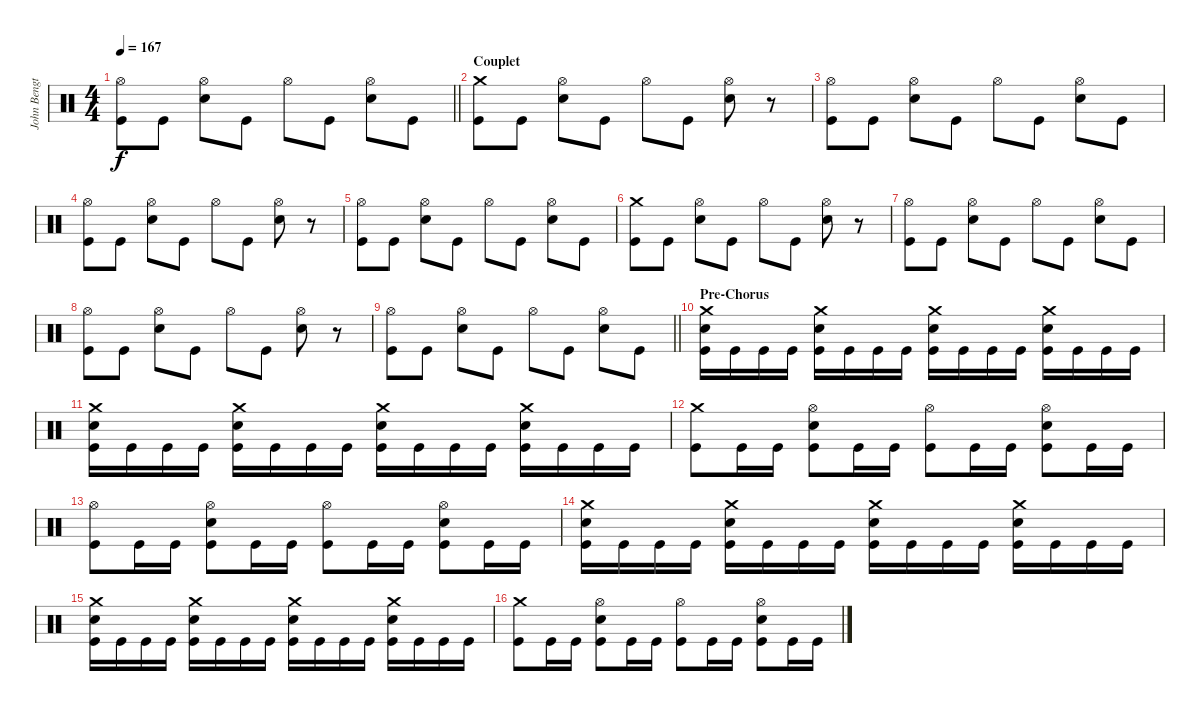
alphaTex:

\track ("John Bengtsson" "John Bengt") {instrument percussion}
\staff {score}
\articulation defaults
\ts (4 4)
\tempo 167
\clef neutral
\barLineRight lightlight
\ks c
("Hi-Hat (open)" "Kick (hit)").8{dy f} "Kick (hit)".8 ("Hi-Hat (open)" "Snare (hit) 2").8 "Kick (hit)".8 "Hi-Hat (open)".8 "Kick (hit)".8 ("Hi-Hat (open)" "Snare (hit) 2").8 "Kick (hit)".8 |
\section ("" "Сouplet")
("Crash medium (hit)" "Kick (hit)").8 "Kick (hit)".8 ("Hi-Hat (open)" "Snare (hit) 2").8 "Kick (hit)".8 "Hi-Hat (open)".8 "Kick (hit)".8 ("Hi-Hat (open)" "Snare (hit) 2").8 r.8 |
("Hi-Hat (open)" "Kick (hit)").8 "Kick (hit)".8 ("Hi-Hat (open)" "Snare (hit) 2").8 "Kick (hit)".8 "Hi-Hat (open)".8 "Kick (hit)".8 ("Hi-Hat (open)" "Snare (hit) 2").8 "Kick (hit)".8 |
("Hi-Hat (open)" "Kick (hit)").8 "Kick (hit)".8 ("Hi-Hat (open)" "Snare (hit) 2").8 "Kick (hit)".8 "Hi-Hat (open)".8 "Kick (hit)".8 ("Hi-Hat (open)" "Snare (hit) 2").8 r.8 |
("Hi-Hat (open)" "Kick (hit)").8 "Kick (hit)".8 ("Hi-Hat (open)" "Snare (hit) 2").8 "Kick (hit)".8 "Hi-Hat (open)".8 "Kick (hit)".8 ("Hi-Hat (open)" "Snare (hit) 2").8 "Kick (hit)".8 |
("Crash medium (hit)" "Kick (hit)").8 "Kick (hit)".8 ("Hi-Hat (open)" "Snare (hit) 2").8 "Kick (hit)".8 "Hi-Hat (open)".8 "Kick (hit)".8 ("Hi-Hat (open)" "Snare (hit) 2").8 r.8 |
("Hi-Hat (open)" "Kick (hit)").8 "Kick (hit)".8 ("Hi-Hat (open)" "Snare (hit) 2").8 "Kick (hit)".8 "Hi-Hat (open)".8 "Kick (hit)".8 ("Hi-Hat (open)" "Snare (hit) 2").8 "Kick (hit)".8 |
("Hi-Hat (open)" "Kick (hit)").8 "Kick (hit)".8 ("Hi-Hat (open)" "Snare (hit) 2").8 "Kick (hit)".8 "Hi-Hat (open)".8 "Kick (hit)".8 ("Hi-Hat (open)" "Snare (hit) 2").8 r.8 |
\barLineRight lightlight
("Hi-Hat (open)" "Kick (hit)").8 "Kick (hit)".8 ("Hi-Hat (open)" "Snare (hit) 2").8 "Kick (hit)".8 "Hi-Hat (open)".8 "Kick (hit)".8 ("Hi-Hat (open)" "Snare (hit) 2").8 "Kick (hit)".8 |
\section ("" "Pre-Chorus")
("Crash medium (hit)" "Snare (hit) 2" "Kick (hit)").16 "Kick (hit)".16 "Kick (hit)".16 "Kick (hit)".16 ("Crash medium (hit)" "Snare (hit) 2" "Kick (hit)").16 "Kick (hit)".16 "Kick (hit)".16 "Kick (hit)".16 ("Crash medium (hit)" "Snare (hit) 2" "Kick (hit)").16 "Kick (hit)".16 "Kick (hit)".16 "Kick (hit)".16 ("Crash medium (hit)" "Snare (hit) 2" "Kick (hit)").16 "Kick (hit)".16 "Kick (hit)".16 "Kick (hit)".16 |
("Crash medium (hit)" "Snare (hit) 2" "Kick (hit)").16 "Kick (hit)".16 "Kick (hit)".16 "Kick (hit)".16 ("Crash medium (hit)" "Snare (hit) 2" "Kick (hit)").16 "Kick (hit)".16 "Kick (hit)".16 "Kick (hit)".16 ("Crash medium (hit)" "Snare (hit) 2" "Kick (hit)").16 "Kick (hit)".16 "Kick (hit)".16 "Kick (hit)".16 ("Crash medium (hit)" "Snare (hit) 2" "Kick (hit)").16 "Kick (hit)".16 "Kick (hit)".16 "Kick (hit)".16 |
("Crash medium (hit)" "Kick (hit)").8 "Kick (hit)".16 "Kick (hit)".16 ("Hi-Hat (open)" "Snare (hit) 2" "Kick (hit)").8 "Kick (hit)".16 "Kick (hit)".16 ("Hi-Hat (open)" "Kick (hit)").8 "Kick (hit)".16 "Kick (hit)".16 ("Hi-Hat (open)" "Snare (hit) 2" "Kick (hit)").8 "Kick (hit)".16 "Kick (hit)".16 |
("Hi-Hat (open)" "Kick (hit)").8 "Kick (hit)".16 "Kick (hit)".16 ("Hi-Hat (open)" "Snare (hit) 2" "Kick (hit)").8 "Kick (hit)".16 "Kick (hit)".16 ("Hi-Hat (open)" "Kick (hit)").8 "Kick (hit)".16 "Kick (hit)".16 ("Hi-Hat (open)" "Snare (hit) 2" "Kick (hit)").8 "Kick (hit)".16 "Kick (hit)".16 |
("Crash medium (hit)" "Snare (hit) 2" "Kick (hit)").16 "Kick (hit)".16 "Kick (hit)".16 "Kick (hit)".16 ("Crash medium (hit)" "Snare (hit) 2" "Kick (hit)").16 "Kick (hit)".16 "Kick (hit)".16 "Kick (hit)".16 ("Crash medium (hit)" "Snare (hit) 2" "Kick (hit)").16 "Kick (hit)".16 "Kick (hit)".16 "Kick (hit)".16 ("Crash medium (hit)" "Snare (hit) 2" "Kick (hit)").16 "Kick (hit)".16 "Kick (hit)".16 "Kick (hit)".16 |
("Crash medium (hit)" "Snare (hit) 2" "Kick (hit)").16 "Kick (hit)".16 "Kick (hit)".16 "Kick (hit)".16 ("Crash medium (hit)" "Snare (hit) 2" "Kick (hit)").16 "Kick (hit)".16 "Kick (hit)".16 "Kick (hit)".16 ("Crash medium (hit)" "Snare (hit) 2" "Kick (hit)").16 "Kick (hit)".16 "Kick (hit)".16 "Kick (hit)".16 ("Crash medium (hit)" "Snare (hit) 2" "Kick (hit)").16 "Kick (hit)".16 "Kick (hit)".16 "Kick (hit)".16 |
("Crash medium (hit)" "Kick (hit)").8 "Kick (hit)".16 "Kick (hit)".16 ("Hi-Hat (open)" "Snare (hit) 2" "Kick (hit)").8 "Kick (hit)".16 "Kick (hit)".16 ("Hi-Hat (open)" "Kick (hit)").8 "Kick (hit)".16 "Kick (hit)".16 ("Hi-Hat (open)" "Snare (hit) 2" "Kick (hit)").8 "Kick (hit)".16 "Kick (hit)".16
